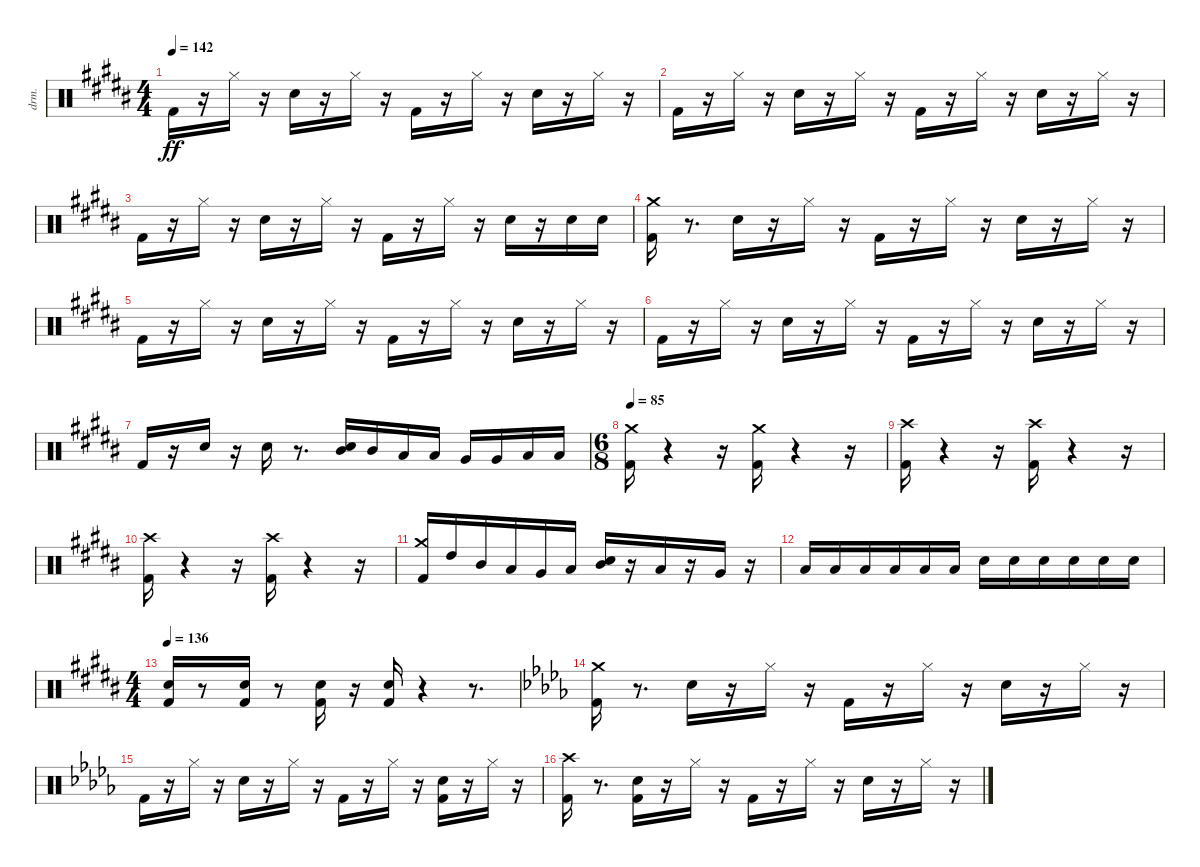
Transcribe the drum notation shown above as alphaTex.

\bracketExtendMode nobrackets
\track ("Drums" "drm.") {instrument percussion}
\staff {score}
\articulation defaults
\ts (4 4)
\tempo 142
\clef neutral
\ks g#minor "Kick (hit) 2"{acc forcenatural}.16{dy ff beam Down}
r.16{beam Down} "Hi-Hat (closed)"{acc #}.16{beam Down} r.16{beam Down} "Electric Snare (hit)"{acc forcenatural}.16{beam Down} r.16{beam Down} "Hi-Hat (closed)"{acc #}.16{beam Down} r.16{beam Down} "Kick (hit) 2"{acc forcenatural}.16{beam Down} r.16{beam Down} "Hi-Hat (closed)"{acc #}.16{beam Down} r.16{beam Down} "Electric Snare (hit)"{acc forcenatural}.16{beam Down} r.16{beam Down} "Hi-Hat (closed)"{acc #}.16{beam Down} r.16{beam Down} |
"Kick (hit) 2"{acc forcenatural}.16{beam Down} r.16{beam Down} "Hi-Hat (closed)"{acc #}.16{beam Down} r.16{beam Down} "Electric Snare (hit)"{acc forcenatural}.16{beam Down} r.16{beam Down} "Hi-Hat (closed)"{acc #}.16{beam Down} r.16{beam Down} "Kick (hit) 2"{acc forcenatural}.16{beam Down} r.16{beam Down} "Hi-Hat (closed)"{acc #}.16{beam Down} r.16{beam Down} "Electric Snare (hit)"{acc forcenatural}.16{beam Down} r.16{beam Down} "Hi-Hat (closed)"{acc #}.16{beam Down} r.16{beam Down} |
"Kick (hit) 2"{acc forcenatural}.16{beam Down} r.16{beam Down} "Hi-Hat (closed)"{acc #}.16{beam Down} r.16{beam Down} "Electric Snare (hit)"{acc forcenatural}.16{beam Down} r.16{beam Down} "Hi-Hat (closed)"{acc #}.16{beam Down} r.16{beam Down} "Kick (hit) 2"{acc forcenatural}.16{beam Down} r.16{beam Down} "Hi-Hat (closed)"{acc #}.16{beam Down} r.16{beam Down} "Electric Snare (hit)"{acc forcenatural}.16{beam Down} r.16{beam Down} "Electric Snare (hit)"{acc forcenatural}.16{beam Down} "Electric Snare (hit)"{acc forcenatural}.16{beam Down} |
("Kick (hit) 2"{acc forcenatural} "Crash medium (hit)"{acc forcenatural}).16{beam Down} r.8{d beam Down} "Electric Snare (hit)"{acc forcenatural}.16{beam Down} r.16{beam Down} "Hi-Hat (closed)"{acc #}.16{beam Down} r.16{beam Down} "Kick (hit) 2"{acc forcenatural}.16{beam Down} r.16{beam Down} "Hi-Hat (closed)"{acc #}.16{beam Down} r.16{beam Down} "Electric Snare (hit)"{acc forcenatural}.16{beam Down} r.16{beam Down} "Hi-Hat (closed)"{acc #}.16{beam Down} r.16{beam Down} |
"Kick (hit) 2"{acc forcenatural}.16{beam Down} r.16{beam Down} "Hi-Hat (closed)"{acc #}.16{beam Down} r.16{beam Down} "Electric Snare (hit)"{acc forcenatural}.16{beam Down} r.16{beam Down} "Hi-Hat (closed)"{acc #}.16{beam Down} r.16{beam Down} "Kick (hit) 2"{acc forcenatural}.16{beam Down} r.16{beam Down} "Hi-Hat (closed)"{acc #}.16{beam Down} r.16{beam Down} "Electric Snare (hit)"{acc forcenatural}.16{beam Down} r.16{beam Down} "Hi-Hat (closed)"{acc #}.16{beam Down} r.16{beam Down} |
"Kick (hit) 2"{acc forcenatural}.16{beam Down} r.16{beam Down} "Hi-Hat (closed)"{acc #}.16{beam Down} r.16{beam Down} "Electric Snare (hit)"{acc forcenatural}.16{beam Down} r.16{beam Down} "Hi-Hat (closed)"{acc #}.16{beam Down} r.16{beam Down} "Kick (hit) 2"{acc forcenatural}.16{beam Down} r.16{beam Down} "Hi-Hat (closed)"{acc #}.16{beam Down} r.16{beam Down} "Electric Snare (hit)"{acc forcenatural}.16{beam Down} r.16{beam Down} "Hi-Hat (closed)"{acc #}.16{beam Down} r.16{beam Down} |
"Kick (hit) 2"{acc forcenatural}.16{beam Up} r.16{beam Up} "Electric Snare (hit)"{acc forcenatural}.16{beam Up} r.16{beam Down} "Electric Snare (hit)"{acc forcenatural}.16{beam Down} r.8{d beam Down} ("Electric Snare (hit)"{acc forcenatural} "Mid Tom (hit)"{acc forcenatural}).16{beam Up} "Mid Tom (hit)"{acc forcenatural}.16{beam Up} "Low Tom (hit)"{acc forcenatural}.16{beam Up} "Low Tom (hit)"{acc forcenatural}.16{beam Up} "Very Low Tom (hit)"{acc forcenatural}.16{beam Up} "Very Low Tom (hit)"{acc forcenatural}.16{beam Up} "Low Floor Tom (hit)"{acc forcenatural}.16{beam Up} "Low Floor Tom (hit)"{acc forcenatural}.16{beam Up} |
\ts (6 8)
\tempo 85
("Kick (hit) 2"{acc forcenatural} "Crash medium (hit)"{acc forcenatural}).16{beam Down} r.4{beam Down} r.16{beam Down} ("Kick (hit) 2"{acc forcenatural} "Crash medium (hit)"{acc forcenatural}).16{beam Down} r.4{beam Down} r.16{beam Down} |
("Kick (hit) 2"{acc forcenatural} "Crash high (hit)"{acc #}).16{beam Down} r.4{beam Down} r.16{beam Down} ("Kick (hit) 2"{acc forcenatural} "Crash high (hit)"{acc #}).16{beam Down} r.4{beam Down} r.16{beam Down} |
("Kick (hit) 2"{acc forcenatural} "Crash high (hit)"{acc #}).16{beam Down} r.4{beam Down} r.16{beam Down} ("Kick (hit) 2"{acc forcenatural} "Crash high (hit)"{acc #}).16{beam Down} r.4{beam Down} r.16{beam Down} |
("Kick (hit) 2"{acc forcenatural} "Crash medium (hit)"{acc forcenatural}).16{beam Up} "High Tom (hit)"{acc forcenatural}.16{beam Up} "Mid Tom (hit)"{acc forcenatural}.16{beam Up} "Low Tom (hit)"{acc forcenatural}.16{beam Up} "Very Low Tom (hit)"{acc forcenatural}.16{beam Up} "Low Floor Tom (hit)"{acc forcenatural}.16{beam Up} ("Electric Snare (hit)"{acc forcenatural} "Mid Tom (hit)"{acc forcenatural}).16{beam Up} r.16{beam Up} "Low Tom (hit)"{acc forcenatural}.16{beam Up} r.16{beam Up} "Very Low Tom (hit)"{acc forcenatural}.16{beam Up} r.16{beam Down} |
"Low Tom (hit)"{acc forcenatural}.16{beam Up} "Low Tom (hit)"{acc forcenatural}.16{beam Up} "Low Tom (hit)"{acc forcenatural}.16{beam Up} "Low Tom (hit)"{acc forcenatural}.16{beam Up} "Low Tom (hit)"{acc forcenatural}.16{beam Up} "Low Tom (hit)"{acc forcenatural}.16{beam Up} "Electric Snare (hit)"{acc forcenatural}.16{beam Down} "Electric Snare (hit)"{acc forcenatural}.16{beam Down} "Electric Snare (hit)"{acc forcenatural}.16{beam Down} "Electric Snare (hit)"{acc forcenatural}.16{beam Down} "Electric Snare (hit)"{acc forcenatural}.16{beam Down} "Electric Snare (hit)"{acc forcenatural}.16{beam Down} |
\ts (4 4)
\tempo 136
("Kick (hit) 2"{acc forcenatural} "Electric Snare (hit)"{acc forcenatural}).16{beam Up} r.8{beam Up} ("Kick (hit) 2"{acc forcenatural} "Electric Snare (hit)"{acc forcenatural}).16{beam Up} r.8{beam Down} ("Kick (hit) 2"{acc forcenatural} "Electric Snare (hit)"{acc forcenatural}).16{beam Up} r.16{beam Down} ("Kick (hit) 2"{acc forcenatural} "Electric Snare (hit)"{acc forcenatural}).16{beam Up} r.4{beam Down} r.8{d beam Down} |
\ks db
("Kick (hit) 2"{acc forcenatural} "Crash medium (hit)"{acc forcenatural}).16{beam Down} r.8{d beam Down} "Electric Snare (hit)"{acc forcenatural}.16{beam Down} r.16{beam Down} "Hi-Hat (closed)"{acc #}.16{beam Down} r.16{beam Down} "Kick (hit) 2"{acc forcenatural}.16{beam Down} r.16{beam Down} "Hi-Hat (closed)"{acc #}.16{beam Down} r.16{beam Down} "Electric Snare (hit)"{acc forcenatural}.16{beam Down} r.16{beam Down} "Hi-Hat (closed)"{acc #}.16{beam Down} r.16{beam Down} |
"Kick (hit) 2"{acc forcenatural}.16{beam Down} r.16{beam Down} "Hi-Hat (closed)"{acc #}.16{beam Down} r.16{beam Down} "Electric Snare (hit)"{acc forcenatural}.16{beam Down} r.16{beam Down} "Hi-Hat (closed)"{acc #}.16{beam Down} r.16{beam Down} "Kick (hit) 2"{acc forcenatural}.16{beam Down} r.16{beam Down} "Hi-Hat (closed)"{acc #}.16{beam Down} r.16{beam Down} ("Kick (hit) 2"{acc forcenatural} "Electric Snare (hit)"{acc forcenatural}).16{beam Down} r.16{beam Down} "Hi-Hat (closed)"{acc #}.16{beam Down} r.16{beam Down} |
("Kick (hit) 2"{acc forcenatural} "Crash high (hit)"{acc #}).16{beam Down} r.8{d beam Down} ("Kick (hit) 2"{acc forcenatural} "Electric Snare (hit)"{acc forcenatural}).16{beam Down} r.16{beam Down} "Hi-Hat (closed)"{acc #}.16{beam Down} r.16{beam Down} "Kick (hit) 2"{acc forcenatural}.16{beam Down} r.16{beam Down} "Hi-Hat (closed)"{acc #}.16{beam Down} r.16{beam Down} "Electric Snare (hit)"{acc forcenatural}.16{beam Down} r.16{beam Down} "Hi-Hat (closed)"{acc #}.16{beam Down} r.16{beam Down}
